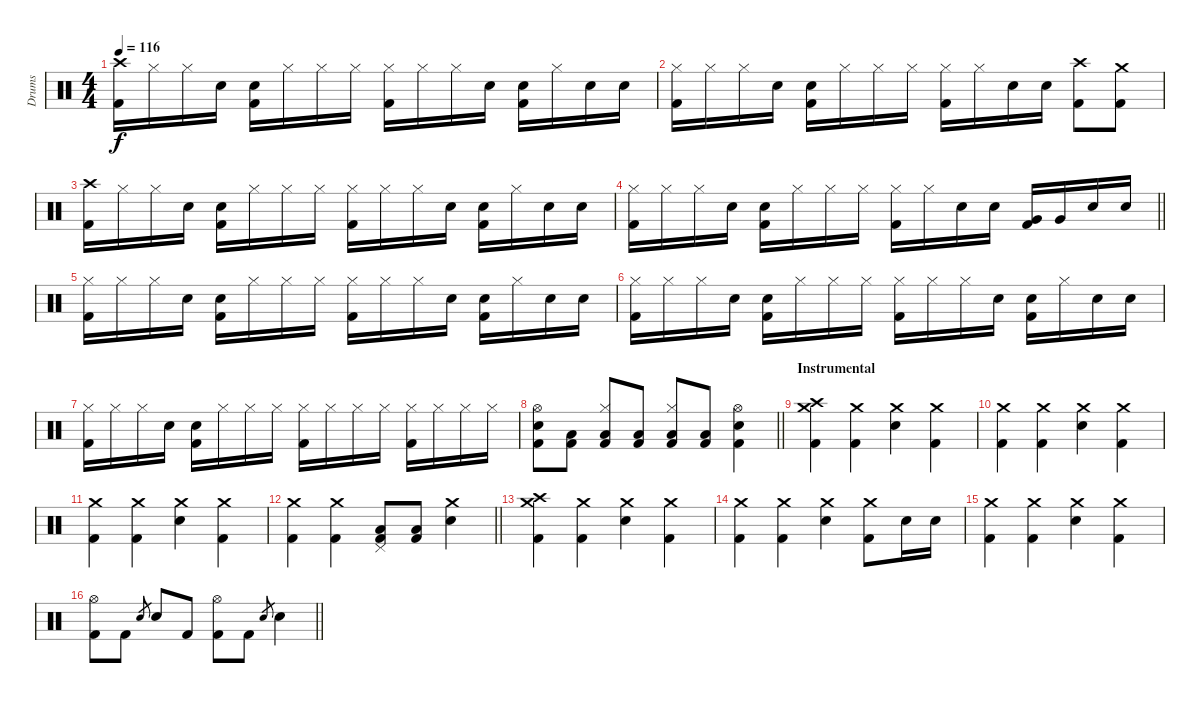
\track ("Drums" "Drums") {instrument percussion}
\staff {score}
\articulation defaults
\ts (4 4)
\tempo 116
\clef neutral
\ks c
("Crash high (hit)" "Kick (hit) 2").16{dy f} "Hi-Hat (closed)".16 "Hi-Hat (closed)".16 "Electric Snare (hit)".16 ("Electric Snare (hit)" "Kick (hit) 2").16 "Hi-Hat (closed)".16 "Hi-Hat (closed)".16 "Hi-Hat (closed)".16 ("Hi-Hat (closed)" "Kick (hit) 2").16 "Hi-Hat (closed)".16 "Hi-Hat (closed)".16 "Electric Snare (hit)".16 ("Electric Snare (hit)" "Kick (hit) 2").16 "Hi-Hat (closed)".16 "Electric Snare (hit)".16 "Electric Snare (hit)".16 |
("Hi-Hat (closed)" "Kick (hit) 2").16 "Hi-Hat (closed)".16 "Hi-Hat (closed)".16 "Electric Snare (hit)".16 ("Electric Snare (hit)" "Kick (hit) 2").16 "Hi-Hat (closed)".16 "Hi-Hat (closed)".16 "Hi-Hat (closed)".16 ("Hi-Hat (closed)" "Kick (hit) 2").16 "Hi-Hat (closed)".16 "Electric Snare (hit)".16 "Electric Snare (hit)".16 ("Crash high (hit)" "Kick (hit) 2").8 ("Crash medium (hit)" "Kick (hit) 2").8 |
("Crash high (hit)" "Kick (hit) 2").16 "Hi-Hat (closed)".16 "Hi-Hat (closed)".16 "Electric Snare (hit)".16 ("Electric Snare (hit)" "Kick (hit) 2").16 "Hi-Hat (closed)".16 "Hi-Hat (closed)".16 "Hi-Hat (closed)".16 ("Hi-Hat (closed)" "Kick (hit) 2").16 "Hi-Hat (closed)".16 "Hi-Hat (closed)".16 "Electric Snare (hit)".16 ("Electric Snare (hit)" "Kick (hit) 2").16 "Hi-Hat (closed)".16 "Electric Snare (hit)".16 "Electric Snare (hit)".16 |
\barLineRight lightlight
("Hi-Hat (closed)" "Kick (hit) 2").16 "Hi-Hat (closed)".16 "Hi-Hat (closed)".16 "Electric Snare (hit)".16 ("Electric Snare (hit)" "Kick (hit) 2").16 "Hi-Hat (closed)".16 "Hi-Hat (closed)".16 "Hi-Hat (closed)".16 ("Hi-Hat (closed)" "Kick (hit) 2").16 "Hi-Hat (closed)".16 "Electric Snare (hit)".16 "Electric Snare (hit)".16 ("Very Low Tom (hit)" "Kick (hit) 2").16 "Very Low Tom (hit)".16 "Electric Snare (hit)".16 "Electric Snare (hit)".16 |
("Hi-Hat (closed)" "Kick (hit) 2").16 "Hi-Hat (closed)".16 "Hi-Hat (closed)".16 "Electric Snare (hit)".16 ("Electric Snare (hit)" "Kick (hit) 2").16 "Hi-Hat (closed)".16 "Hi-Hat (closed)".16 "Hi-Hat (closed)".16 ("Hi-Hat (closed)" "Kick (hit) 2").16 "Hi-Hat (closed)".16 "Hi-Hat (closed)".16 "Electric Snare (hit)".16 ("Electric Snare (hit)" "Kick (hit) 2").16 "Hi-Hat (closed)".16 "Electric Snare (hit)".16 "Electric Snare (hit)".16 |
("Hi-Hat (closed)" "Kick (hit) 2").16 "Hi-Hat (closed)".16 "Hi-Hat (closed)".16 "Electric Snare (hit)".16 ("Electric Snare (hit)" "Kick (hit) 2").16 "Hi-Hat (closed)".16 "Hi-Hat (closed)".16 "Hi-Hat (closed)".16 ("Hi-Hat (closed)" "Kick (hit) 2").16 "Hi-Hat (closed)".16 "Hi-Hat (closed)".16 "Electric Snare (hit)".16 ("Electric Snare (hit)" "Kick (hit) 2").16 "Hi-Hat (closed)".16 "Electric Snare (hit)".16 "Electric Snare (hit)".16 |
("Hi-Hat (closed)" "Kick (hit) 2").16 "Hi-Hat (closed)".16 "Hi-Hat (closed)".16 "Electric Snare (hit)".16 ("Electric Snare (hit)" "Kick (hit) 2").16 "Hi-Hat (closed)".16 "Hi-Hat (closed)".16 "Hi-Hat (closed)".16 ("Hi-Hat (closed)" "Kick (hit) 2").16 "Hi-Hat (closed)".16 "Hi-Hat (closed)".16 "Hi-Hat (closed)".16 ("Hi-Hat (closed)" "Kick (hit) 2").16 "Hi-Hat (closed)".16 "Hi-Hat (closed)".16 "Hi-Hat (closed)".16 |
\barLineRight lightlight
("Hi-Hat (open)" "Electric Snare (hit)" "Kick (hit) 2").8 ("Low Floor Tom (hit)" "Kick (hit) 2").8 ("Hi-Hat (closed)" "Low Floor Tom (hit)" "Kick (hit) 2").8 ("Low Floor Tom (hit)" "Kick (hit) 2").8 ("Hi-Hat (closed)" "Low Floor Tom (hit)" "Kick (hit) 2").8 ("Low Floor Tom (hit)" "Kick (hit) 2").8 ("Hi-Hat (open)" "Electric Snare (hit)" "Kick (hit) 2").4 |
\section ("" "Instrumental")
("Crash high (hit)" "Crash medium (hit)" "Kick (hit) 2").4 ("Crash medium (hit)" "Kick (hit) 2").4 ("Crash medium (hit)" "Electric Snare (hit)").4 ("Crash medium (hit)" "Kick (hit) 2").4 |
("Crash medium (hit)" "Kick (hit) 2").4 ("Crash medium (hit)" "Kick (hit) 2").4 ("Crash medium (hit)" "Electric Snare (hit)").4 ("Crash medium (hit)" "Kick (hit) 2").4 |
("Crash medium (hit)" "Kick (hit) 2").4 ("Crash medium (hit)" "Kick (hit) 2").4 ("Crash medium (hit)" "Electric Snare (hit)").4 ("Crash medium (hit)" "Kick (hit) 2").4 |
\barLineRight lightlight
("Crash medium (hit)" "Kick (hit) 2").4 ("Crash medium (hit)" "Kick (hit) 2").4 ("Pedal Hi-Hat (hit)" "Low Floor Tom (hit)" "Kick (hit) 2").8 ("Low Floor Tom (hit)" "Kick (hit) 2").8 ("Crash medium (hit)" "Electric Snare (hit)").4 |
("Crash high (hit)" "Crash medium (hit)" "Kick (hit) 2").4 ("Crash medium (hit)" "Kick (hit) 2").4 ("Crash medium (hit)" "Electric Snare (hit)").4 ("Crash medium (hit)" "Kick (hit) 2").4 |
("Crash medium (hit)" "Kick (hit) 2").4 ("Crash medium (hit)" "Kick (hit) 2").4 ("Crash medium (hit)" "Electric Snare (hit)").4 ("Crash medium (hit)" "Kick (hit) 2").8 "Electric Snare (hit)".16 "Electric Snare (hit)".16 |
("Crash medium (hit)" "Kick (hit) 2").4 ("Crash medium (hit)" "Kick (hit) 2").4 ("Crash medium (hit)" "Electric Snare (hit)").4 ("Crash medium (hit)" "Kick (hit) 2").4 |
\barLineRight lightlight
("Hi-Hat (open)" "Kick (hit) 2").8 "Kick (hit) 2".8 "Electric Snare (hit)".8{gr} "Electric Snare (hit)".8 "Kick (hit) 2".8 ("Hi-Hat (open)" "Kick (hit) 2").8 "Kick (hit) 2".8 "Electric Snare (hit)".8{gr} "Electric Snare (hit)".4
